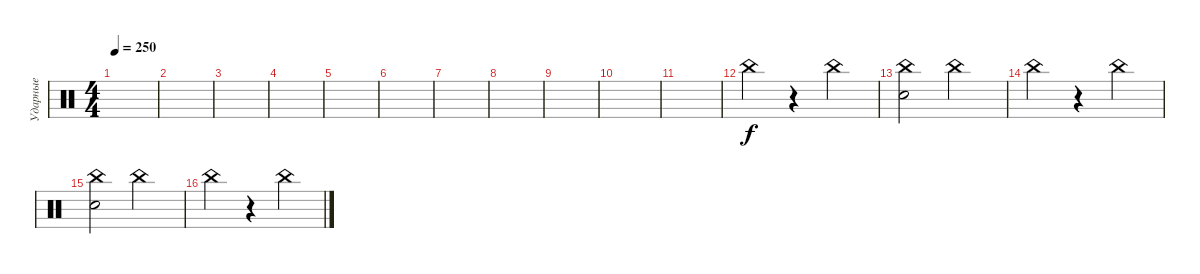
\track ("Ударные" "Ударные") {instrument percussion}
\staff {score}
\articulation defaults
\ts (4 4)
\tempo 250
\clef neutral
\ks c
|
|
|
|
|
|
|
|
|
|
|
"China (hit)".4 r.4 "China (hit)".4 |
("China (hit)" "Snare (hit) 2").2 "China (hit)".2 |
"China (hit)".4 r.4 "China (hit)".4 |
("China (hit)" "Snare (hit) 2").2 "China (hit)".2 |
"China (hit)".4 r.4 "China (hit)".4
